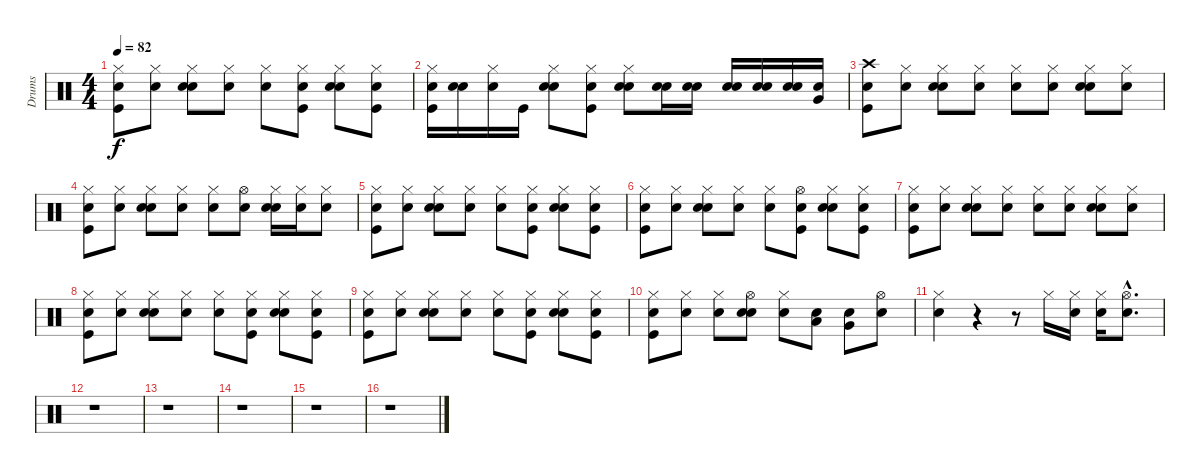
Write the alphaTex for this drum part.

\track ("Drums" "Drums") {instrument percussion}
\staff {score}
\articulation defaults
\ts (4 4)
\tempo 82
\clef neutral
\ks c
("Snare (hit)" "Kick (hit)" "Hi-Hat (closed)").8{dy f} ("Snare (hit)" "Hi-Hat (closed)").8 ("Snare (hit)" "Electric Snare (hit)" "Hi-Hat (closed)").8 ("Snare (hit)" "Hi-Hat (closed)").8 ("Snare (hit)" "Hi-Hat (closed)").8 ("Snare (hit)" "Kick (hit)" "Hi-Hat (closed)").8 ("Snare (hit)" "Electric Snare (hit)" "Hi-Hat (closed)").8 ("Snare (hit)" "Kick (hit)" "Hi-Hat (closed)").8 |
("Snare (hit)" "Kick (hit)" "Hi-Hat (closed)").16 ("Snare (hit)" "Electric Snare (hit)").16 ("Snare (hit)" "Hi-Hat (closed)").16 "Kick (hit)".16 ("Snare (hit)" "Electric Snare (hit)" "Hi-Hat (closed)").8 ("Snare (hit)" "Kick (hit)" "Hi-Hat (closed)").8 ("Snare (hit)" "Electric Snare (hit)" "Hi-Hat (closed)").8 ("Snare (hit)" "Electric Snare (hit)").16 ("Snare (hit)" "Electric Snare (hit)").16 ("Snare (hit)" "Electric Snare (hit)").16 ("Snare (hit)" "Electric Snare (hit)").16 ("Snare (hit)" "Electric Snare (hit)").16 ("Snare (hit)" "Very Low Tom (hit)").16 |
("Snare (hit)" "Kick (hit)" "Crash high (hit)").8 ("Snare (hit)" "Hi-Hat (closed)").8 ("Snare (hit)" "Electric Snare (hit)" "Hi-Hat (closed)").8 ("Snare (hit)" "Hi-Hat (closed)").8 ("Snare (hit)" "Hi-Hat (closed)").8 ("Snare (hit)" "Hi-Hat (closed)").8 ("Snare (hit)" "Electric Snare (hit)" "Hi-Hat (closed)").8 ("Snare (hit)" "Hi-Hat (closed)").8 |
("Snare (hit)" "Kick (hit)" "Hi-Hat (closed)").8 ("Snare (hit)" "Hi-Hat (closed)").8 ("Snare (hit)" "Electric Snare (hit)" "Hi-Hat (closed)").8 ("Snare (hit)" "Hi-Hat (closed)").8 ("Snare (hit)" "Hi-Hat (closed)").8 ("Snare (hit)" "Hi-Hat (open)").8 ("Snare (hit)" "Electric Snare (hit)" "Hi-Hat (closed)").16 ("Snare (hit)" "Hi-Hat (closed)").16 ("Snare (hit)" "Hi-Hat (closed)").8 |
("Snare (hit)" "Kick (hit)" "Hi-Hat (closed)").8 ("Snare (hit)" "Hi-Hat (closed)").8 ("Snare (hit)" "Electric Snare (hit)" "Hi-Hat (closed)").8 ("Snare (hit)" "Hi-Hat (closed)").8 ("Snare (hit)" "Hi-Hat (closed)").8 ("Snare (hit)" "Kick (hit)" "Hi-Hat (closed)").8 ("Snare (hit)" "Electric Snare (hit)" "Hi-Hat (closed)").8 ("Snare (hit)" "Kick (hit)" "Hi-Hat (closed)").8 |
("Snare (hit)" "Kick (hit)" "Hi-Hat (closed)").8 ("Snare (hit)" "Hi-Hat (closed)").8 ("Snare (hit)" "Electric Snare (hit)" "Hi-Hat (closed)").8 ("Snare (hit)" "Hi-Hat (closed)").8 ("Snare (hit)" "Hi-Hat (closed)").8 ("Snare (hit)" "Kick (hit)" "Hi-Hat (open)").8 ("Snare (hit)" "Electric Snare (hit)" "Hi-Hat (closed)").8 ("Snare (hit)" "Kick (hit)" "Hi-Hat (closed)").8 |
("Snare (hit)" "Kick (hit)" "Hi-Hat (closed)").8 ("Snare (hit)" "Hi-Hat (closed)").8 ("Snare (hit)" "Electric Snare (hit)" "Hi-Hat (closed)").8 ("Snare (hit)" "Hi-Hat (closed)").8 ("Snare (hit)" "Hi-Hat (closed)").8 ("Snare (hit)" "Hi-Hat (closed)").8 ("Snare (hit)" "Electric Snare (hit)" "Hi-Hat (closed)").8 ("Snare (hit)" "Hi-Hat (closed)").8 |
("Snare (hit)" "Kick (hit)" "Hi-Hat (closed)").8 ("Snare (hit)" "Hi-Hat (closed)").8 ("Snare (hit)" "Electric Snare (hit)" "Hi-Hat (closed)").8 ("Snare (hit)" "Hi-Hat (closed)").8 ("Snare (hit)" "Hi-Hat (closed)").8 ("Snare (hit)" "Kick (hit)" "Hi-Hat (closed)").8 ("Snare (hit)" "Electric Snare (hit)" "Hi-Hat (closed)").8 ("Snare (hit)" "Kick (hit)" "Hi-Hat (closed)").8 |
("Snare (hit)" "Kick (hit)" "Hi-Hat (closed)").8 ("Snare (hit)" "Hi-Hat (closed)").8 ("Snare (hit)" "Electric Snare (hit)" "Hi-Hat (closed)").8 ("Snare (hit)" "Hi-Hat (closed)").8 ("Snare (hit)" "Hi-Hat (closed)").8 ("Snare (hit)" "Kick (hit)" "Hi-Hat (closed)").8 ("Snare (hit)" "Electric Snare (hit)" "Hi-Hat (closed)").8 ("Snare (hit)" "Kick (hit)" "Hi-Hat (closed)").8 |
("Snare (hit)" "Kick (hit)" "Hi-Hat (closed)").8 ("Snare (hit)" "Hi-Hat (closed)").8 ("Snare (hit)" "Hi-Hat (closed)").8 ("Snare (hit)" "Electric Snare (hit)" "Hi-Hat (open)").8 ("Snare (hit)" "Hi-Hat (closed)").8 ("Snare (hit)" "Low Tom (hit)").8 ("Snare (hit)" "Very Low Tom (hit)").8 ("Snare (hit)" "Hi-Hat (open)").8 |
("Snare (hit)" "Hi-Hat (closed)").4 r.4 r.8 "Hi-Hat (closed)".16 ("Snare (hit)" "Hi-Hat (closed)").16 ("Snare (hit)" "Hi-Hat (closed)").16 ("Snare (hit)"{hac} "Hi-Hat (open)"{hac}).8{d} |
r.1 |
r.1 |
r.1 |
r.1 |
r.1
